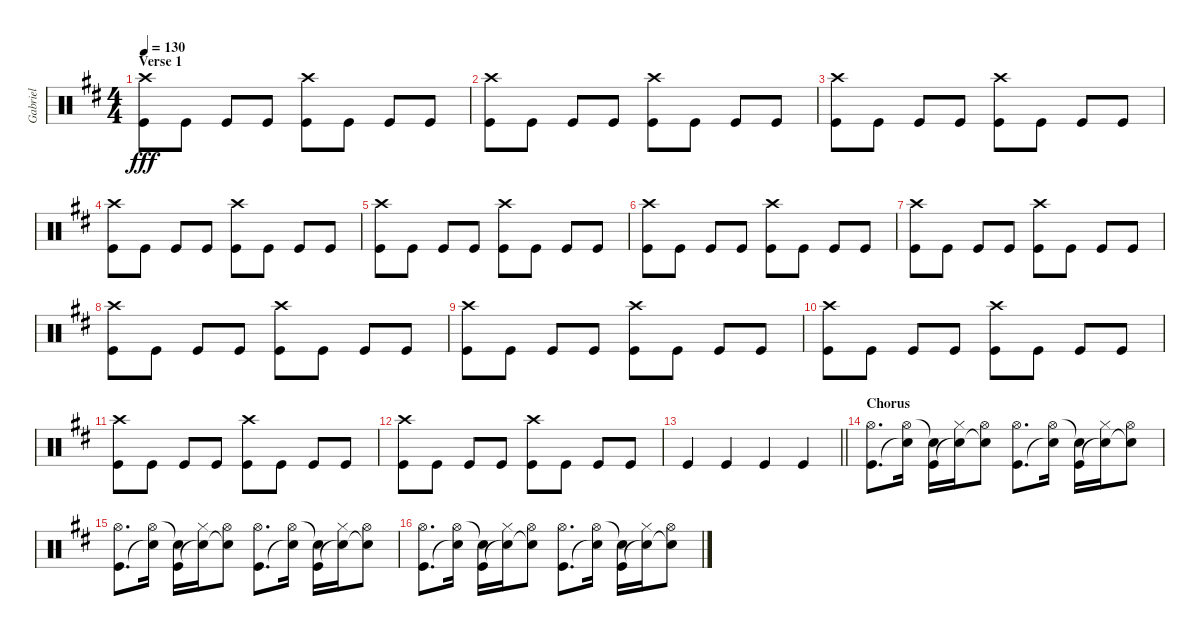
\track ("Gabriel" "Gabriel") {instrument percussion}
\staff {score}
\articulation defaults
\ts (4 4)
\section ("" "Verse 1")
\tempo 130
\clef neutral
\ks d
("Crash high (hit)" "Kick (hit)").8{dy fff} "Kick (hit)".8 "Kick (hit)".8 "Kick (hit)".8 ("Crash high (hit)" "Kick (hit)").8 "Kick (hit)".8 "Kick (hit)".8 "Kick (hit)".8 |
("Crash high (hit)" "Kick (hit)").8 "Kick (hit)".8 "Kick (hit)".8 "Kick (hit)".8 ("Crash high (hit)" "Kick (hit)").8 "Kick (hit)".8 "Kick (hit)".8 "Kick (hit)".8 |
("Crash high (hit)" "Kick (hit)").8 "Kick (hit)".8 "Kick (hit)".8 "Kick (hit)".8 ("Crash high (hit)" "Kick (hit)").8 "Kick (hit)".8 "Kick (hit)".8 "Kick (hit)".8 |
("Crash high (hit)" "Kick (hit)").8 "Kick (hit)".8 "Kick (hit)".8 "Kick (hit)".8 ("Crash high (hit)" "Kick (hit)").8 "Kick (hit)".8 "Kick (hit)".8 "Kick (hit)".8 |
("Crash high (hit)" "Kick (hit)").8 "Kick (hit)".8 "Kick (hit)".8 "Kick (hit)".8 ("Crash high (hit)" "Kick (hit)").8 "Kick (hit)".8 "Kick (hit)".8 "Kick (hit)".8 |
("Crash high (hit)" "Kick (hit)").8 "Kick (hit)".8 "Kick (hit)".8 "Kick (hit)".8 ("Crash high (hit)" "Kick (hit)").8 "Kick (hit)".8 "Kick (hit)".8 "Kick (hit)".8 |
("Crash high (hit)" "Kick (hit)").8 "Kick (hit)".8 "Kick (hit)".8 "Kick (hit)".8 ("Crash high (hit)" "Kick (hit)").8 "Kick (hit)".8 "Kick (hit)".8 "Kick (hit)".8 |
("Crash high (hit)" "Kick (hit)").8 "Kick (hit)".8 "Kick (hit)".8 "Kick (hit)".8 ("Crash high (hit)" "Kick (hit)").8 "Kick (hit)".8 "Kick (hit)".8 "Kick (hit)".8 |
("Crash high (hit)" "Kick (hit)").8 "Kick (hit)".8 "Kick (hit)".8 "Kick (hit)".8 ("Crash high (hit)" "Kick (hit)").8 "Kick (hit)".8 "Kick (hit)".8 "Kick (hit)".8 |
("Crash high (hit)" "Kick (hit)").8 "Kick (hit)".8 "Kick (hit)".8 "Kick (hit)".8 ("Crash high (hit)" "Kick (hit)").8 "Kick (hit)".8 "Kick (hit)".8 "Kick (hit)".8 |
("Crash high (hit)" "Kick (hit)").8 "Kick (hit)".8 "Kick (hit)".8 "Kick (hit)".8 ("Crash high (hit)" "Kick (hit)").8 "Kick (hit)".8 "Kick (hit)".8 "Kick (hit)".8 |
("Crash high (hit)" "Kick (hit)").8 "Kick (hit)".8 "Kick (hit)".8 "Kick (hit)".8 ("Crash high (hit)" "Kick (hit)").8 "Kick (hit)".8 "Kick (hit)".8 "Kick (hit)".8 |
\barLineRight lightlight "Kick (hit)".4 "Kick (hit)".4 "Kick (hit)".4 "Kick (hit)".4
|
\section ("" "Chorus")
("Hi-Hat (open)" "Kick (hit)").8{d} ("Hi-Hat (open)" "Snare (hit)"{t}).16 ("Snare (hit)"{t} "Kick (hit)").16 ("Hi-Hat (closed)" "Snare (hit)"{t}).16 ("Hi-Hat (open)" "Snare (hit)"{t}).8 ("Hi-Hat (open)" "Kick (hit)").8{d} ("Hi-Hat (open)" "Snare (hit)"{t}).16 ("Snare (hit)"{t} "Kick (hit)").16 ("Hi-Hat (closed)" "Snare (hit)"{t}).16 ("Hi-Hat (open)" "Snare (hit)"{t}).8 |
("Hi-Hat (open)" "Kick (hit)").8{d} ("Hi-Hat (open)" "Snare (hit)"{t}).16 ("Snare (hit)"{t} "Kick (hit)").16 ("Hi-Hat (closed)" "Snare (hit)"{t}).16 ("Hi-Hat (open)" "Snare (hit)"{t}).8 ("Hi-Hat (open)" "Kick (hit)").8{d} ("Hi-Hat (open)" "Snare (hit)"{t}).16 ("Snare (hit)"{t} "Kick (hit)").16 ("Hi-Hat (closed)" "Snare (hit)"{t}).16 ("Hi-Hat (open)" "Snare (hit)"{t}).8 |
("Hi-Hat (open)" "Kick (hit)").8{d} ("Hi-Hat (open)" "Snare (hit)"{t}).16 ("Snare (hit)"{t} "Kick (hit)").16 ("Hi-Hat (closed)" "Snare (hit)"{t}).16 ("Hi-Hat (open)" "Snare (hit)"{t}).8 ("Hi-Hat (open)" "Kick (hit)").8{d} ("Hi-Hat (open)" "Snare (hit)"{t}).16 ("Snare (hit)"{t} "Kick (hit)").16 ("Hi-Hat (closed)" "Snare (hit)"{t}).16 ("Hi-Hat (open)" "Snare (hit)"{t}).8
